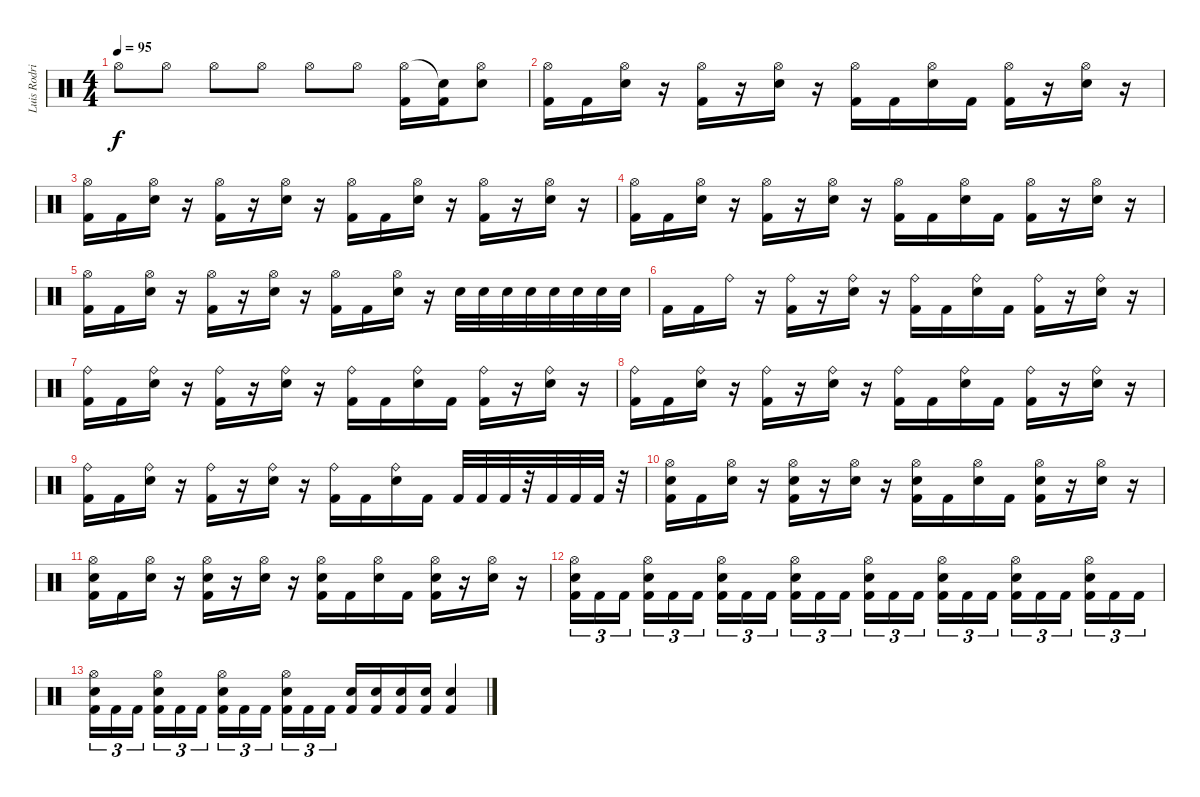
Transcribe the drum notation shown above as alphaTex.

\track ("Luis Rodriguez" "Luis Rodri") {instrument percussion}
\staff {score}
\articulation defaults
\ts (4 4)
\tempo 95
\clef neutral
\ks c "Hi-Hat (open)".8{dy f} "Hi-Hat (open)".8 "Hi-Hat (open)".8 "Hi-Hat (open)".8 "Hi-Hat (open)".8 "Hi-Hat (open)".8
("Hi-Hat (open)" "Kick (hit) 2").16 ("Snare (hit)"{t} "Kick (hit) 2").16 ("Hi-Hat (open)" "Snare (hit) 2").8 |
("Hi-Hat (open)" "Kick (hit) 2").16 "Kick (hit) 2".16 ("Hi-Hat (open)" "Electric Snare (hit)").16 r.16 ("Hi-Hat (open)" "Kick (hit) 2").16 r.16 ("Hi-Hat (open)" "Electric Snare (hit)").16 r.16 ("Hi-Hat (open)" "Kick (hit) 2").16 "Kick (hit) 2".16 ("Hi-Hat (open)" "Electric Snare (hit)").16 "Kick (hit) 2".16 ("Hi-Hat (open)" "Kick (hit) 2").16 r.16 ("Hi-Hat (open)" "Electric Snare (hit)").16 r.16 |
("Hi-Hat (open)" "Kick (hit) 2").16 "Kick (hit) 2".16 ("Hi-Hat (open)" "Electric Snare (hit)").16 r.16 ("Hi-Hat (open)" "Kick (hit) 2").16 r.16 ("Hi-Hat (open)" "Electric Snare (hit)").16 r.16 ("Hi-Hat (open)" "Kick (hit) 2").16 "Kick (hit) 2".16 ("Hi-Hat (open)" "Electric Snare (hit)").16 r.16 ("Hi-Hat (open)" "Kick (hit) 2").16 r.16 ("Hi-Hat (open)" "Electric Snare (hit)").16 r.16 |
("Hi-Hat (open)" "Kick (hit) 2").16 "Kick (hit) 2".16 ("Hi-Hat (open)" "Electric Snare (hit)").16 r.16 ("Hi-Hat (open)" "Kick (hit) 2").16 r.16 ("Hi-Hat (open)" "Electric Snare (hit)").16 r.16 ("Hi-Hat (open)" "Kick (hit) 2").16 "Kick (hit) 2".16 ("Hi-Hat (open)" "Electric Snare (hit)").16 "Kick (hit) 2".16 ("Hi-Hat (open)" "Kick (hit) 2").16 r.16 ("Hi-Hat (open)" "Electric Snare (hit)").16 r.16 |
("Hi-Hat (open)" "Kick (hit) 2").16 "Kick (hit) 2".16 ("Hi-Hat (open)" "Electric Snare (hit)").16 r.16 ("Hi-Hat (open)" "Kick (hit) 2").16 r.16 ("Hi-Hat (open)" "Electric Snare (hit)").16 r.16 ("Hi-Hat (open)" "Kick (hit) 2").16 "Kick (hit) 2".16 ("Hi-Hat (open)" "Electric Snare (hit)").16 r.16 "Electric Snare (hit)".32 "Electric Snare (hit)".32 "Electric Snare (hit)".32 "Electric Snare (hit)".32 "Electric Snare (hit)".32 "Electric Snare (hit)".32 "Electric Snare (hit)".32 "Electric Snare (hit)".32 |
"Kick (hit) 2".16 "Kick (hit) 2".16 "Ride (bell)".16 r.16 ("Ride (bell)" "Kick (hit) 2").16 r.16 ("Ride (bell)" "Snare (hit) 2").16 r.16 ("Ride (bell)" "Kick (hit) 2").16 "Kick (hit) 2".16 ("Ride (bell)" "Snare (hit) 2").16 "Kick (hit) 2".16 ("Ride (bell)" "Kick (hit) 2").16 r.16 ("Ride (bell)" "Snare (hit) 2").16 r.16 |
("Ride (bell)" "Kick (hit) 2").16 "Kick (hit) 2".16 ("Ride (bell)" "Snare (hit) 2").16 r.16 ("Ride (bell)" "Kick (hit) 2").16 r.16 ("Ride (bell)" "Snare (hit) 2").16 r.16 ("Ride (bell)" "Kick (hit) 2").16 "Kick (hit) 2".16 ("Ride (bell)" "Snare (hit) 2").16 "Kick (hit) 2".16 ("Ride (bell)" "Kick (hit) 2").16 r.16 ("Ride (bell)" "Snare (hit) 2").16 r.16 |
("Ride (bell)" "Kick (hit) 2").16 "Kick (hit) 2".16 ("Ride (bell)" "Snare (hit) 2").16 r.16 ("Ride (bell)" "Kick (hit) 2").16 r.16 ("Ride (bell)" "Snare (hit) 2").16 r.16 ("Ride (bell)" "Kick (hit) 2").16 "Kick (hit) 2".16 ("Ride (bell)" "Snare (hit) 2").16 "Kick (hit) 2".16 ("Ride (bell)" "Kick (hit) 2").16 r.16 ("Ride (bell)" "Snare (hit) 2").16 r.16 |
("Ride (bell)" "Kick (hit) 2").16 "Kick (hit) 2".16 ("Ride (bell)" "Snare (hit) 2").16 r.16 ("Ride (bell)" "Kick (hit) 2").16 r.16 ("Ride (bell)" "Snare (hit) 2").16 r.16 ("Ride (bell)" "Kick (hit) 2").16 "Kick (hit) 2".16 ("Ride (bell)" "Snare (hit) 2").16 "Kick (hit) 2".16 "Kick (hit) 2".32 "Kick (hit) 2".32 "Kick (hit) 2".32 r.32 "Kick (hit) 2".32 "Kick (hit) 2".32 "Kick (hit) 2".32 r.32 |
("Hi-Hat (open)" "Snare (hit) 2" "Kick (hit) 2").16 "Kick (hit) 2".16 ("Hi-Hat (open)" "Snare (hit) 2").16 r.16 ("Hi-Hat (open)" "Snare (hit) 2" "Kick (hit) 2").16 r.16 ("Hi-Hat (open)" "Snare (hit) 2").16 r.16 ("Hi-Hat (open)" "Snare (hit) 2" "Kick (hit) 2").16 "Kick (hit) 2".16 ("Hi-Hat (open)" "Snare (hit) 2").16 "Kick (hit) 2".16 ("Hi-Hat (open)" "Snare (hit) 2" "Kick (hit) 2").16 r.16 ("Hi-Hat (open)" "Snare (hit) 2").16 r.16 |
("Hi-Hat (open)" "Snare (hit) 2" "Kick (hit) 2").16 "Kick (hit) 2".16 ("Hi-Hat (open)" "Snare (hit) 2").16 r.16 ("Hi-Hat (open)" "Snare (hit) 2" "Kick (hit) 2").16 r.16 ("Hi-Hat (open)" "Snare (hit) 2").16 r.16 ("Hi-Hat (open)" "Snare (hit) 2" "Kick (hit) 2").16 "Kick (hit) 2".16 ("Hi-Hat (open)" "Snare (hit) 2").16 "Kick (hit) 2".16 ("Hi-Hat (open)" "Snare (hit) 2" "Kick (hit) 2").16 r.16 ("Hi-Hat (open)" "Snare (hit) 2").16 r.16 |
("Hi-Hat (open)" "Snare (hit) 2" "Kick (hit) 2").16{tu (3 2)} "Kick (hit) 2".16{tu (3 2)} "Kick (hit) 2".16{tu (3 2) beam splitsecondary} ("Hi-Hat (open)" "Snare (hit) 2" "Kick (hit) 2").16{tu (3 2)} "Kick (hit) 2".16{tu (3 2)} "Kick (hit) 2".16{tu (3 2)} ("Hi-Hat (open)" "Snare (hit) 2" "Kick (hit) 2").16{tu (3 2)} "Kick (hit) 2".16{tu (3 2)} "Kick (hit) 2".16{tu (3 2) beam splitsecondary} ("Hi-Hat (open)" "Snare (hit) 2" "Kick (hit) 2").16{tu (3 2)} "Kick (hit) 2".16{tu (3 2)} "Kick (hit) 2".16{tu (3 2)} ("Hi-Hat (open)" "Snare (hit) 2" "Kick (hit) 2").16{tu (3 2)} "Kick (hit) 2".16{tu (3 2)} "Kick (hit) 2".16{tu (3 2) beam splitsecondary} ("Hi-Hat (open)" "Snare (hit) 2" "Kick (hit) 2").16{tu (3 2)} "Kick (hit) 2".16{tu (3 2)} "Kick (hit) 2".16{tu (3 2)} ("Hi-Hat (open)" "Snare (hit) 2" "Kick (hit) 2").16{tu (3 2)} "Kick (hit) 2".16{tu (3 2)} "Kick (hit) 2".16{tu (3 2) beam splitsecondary} ("Hi-Hat (open)" "Snare (hit) 2" "Kick (hit) 2").16{tu (3 2)} "Kick (hit) 2".16{tu (3 2)} "Kick (hit) 2".16{tu (3 2)} |
("Hi-Hat (open)" "Snare (hit) 2" "Kick (hit) 2").16{tu (3 2)} "Kick (hit) 2".16{tu (3 2)} "Kick (hit) 2".16{tu (3 2) beam splitsecondary} ("Hi-Hat (open)" "Snare (hit) 2" "Kick (hit) 2").16{tu (3 2)} "Kick (hit) 2".16{tu (3 2)} "Kick (hit) 2".16{tu (3 2)} ("Hi-Hat (open)" "Snare (hit) 2" "Kick (hit) 2").16{tu (3 2)} "Kick (hit) 2".16{tu (3 2)} "Kick (hit) 2".16{tu (3 2) beam splitsecondary} ("Hi-Hat (open)" "Snare (hit) 2" "Kick (hit) 2").16{tu (3 2)} "Kick (hit) 2".16{tu (3 2)} "Kick (hit) 2".16{tu (3 2)} ("Snare (hit) 2" "Kick (hit) 2").16 ("Snare (hit) 2" "Kick (hit) 2").16 ("Snare (hit) 2" "Kick (hit) 2").16 ("Snare (hit) 2" "Kick (hit) 2").16 ("Snare (hit) 2" "Kick (hit) 2").4
